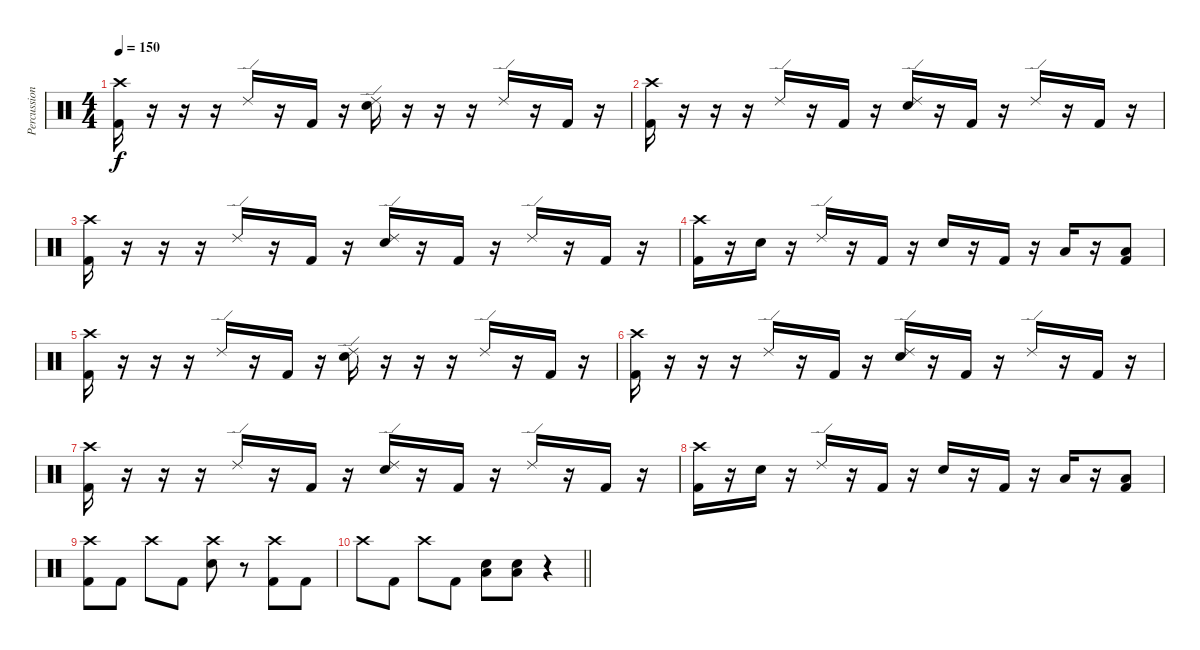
\track ("Percussion" "Percussion") {instrument percussion}
\staff {score}
\articulation defaults
\ts (4 4)
\tempo 150
\clef neutral
\ks c
("Crash high (hit)" "Kick (hit) 2").16{dy f} r.16 r.16 r.16 "Ride (edge) 2".16 r.16 "Kick (hit) 2".16 r.16 ("Ride (edge) 2" "Electric Snare (hit)").16 r.16 r.16 r.16 "Ride (edge) 2".16 r.16 "Kick (hit) 2".16 r.16 |
("Crash high (hit)" "Kick (hit) 2").16 r.16 r.16 r.16 "Ride (edge) 2".16 r.16 "Kick (hit) 2".16 r.16 ("Ride (edge) 2" "Electric Snare (hit)").16 r.16 "Kick (hit) 2".16 r.16 "Ride (edge) 2".16 r.16 "Kick (hit) 2".16 r.16 |
("Crash high (hit)" "Kick (hit) 2").16 r.16 r.16 r.16 "Ride (edge) 2".16 r.16 "Kick (hit) 2".16 r.16 ("Ride (edge) 2" "Electric Snare (hit)").16 r.16 "Kick (hit) 2".16 r.16 "Ride (edge) 2".16 r.16 "Kick (hit) 2".16 r.16 |
("Crash high (hit)" "Kick (hit) 2").16 r.16 "Electric Snare (hit)".16 r.16 "Ride (edge) 2".16 r.16 "Kick (hit) 2".16 r.16 "Electric Snare (hit)".16 r.16 "Kick (hit) 2".16 r.16 "Low Tom (hit)".16 r.16 ("Low Tom (hit)" "Kick (hit) 2").8 |
("Crash high (hit)" "Kick (hit) 2").16 r.16 r.16 r.16 "Ride (edge) 2".16 r.16 "Kick (hit) 2".16 r.16 ("Ride (edge) 2" "Electric Snare (hit)").16 r.16 r.16 r.16 "Ride (edge) 2".16 r.16 "Kick (hit) 2".16 r.16 |
("Crash high (hit)" "Kick (hit) 2").16 r.16 r.16 r.16 "Ride (edge) 2".16 r.16 "Kick (hit) 2".16 r.16 ("Ride (edge) 2" "Electric Snare (hit)").16 r.16 "Kick (hit) 2".16 r.16 "Ride (edge) 2".16 r.16 "Kick (hit) 2".16 r.16 |
("Crash high (hit)" "Kick (hit) 2").16 r.16 r.16 r.16 "Ride (edge) 2".16 r.16 "Kick (hit) 2".16 r.16 ("Ride (edge) 2" "Electric Snare (hit)").16 r.16 "Kick (hit) 2".16 r.16 "Ride (edge) 2".16 r.16 "Kick (hit) 2".16 r.16 |
("Crash high (hit)" "Kick (hit) 2").16 r.16 "Electric Snare (hit)".16 r.16 "Ride (edge) 2".16 r.16 "Kick (hit) 2".16 r.16 "Electric Snare (hit)".16 r.16 "Kick (hit) 2".16 r.16 "Low Tom (hit)".16 r.16 ("Low Tom (hit)" "Kick (hit) 2").8 |
("Crash high (hit)" "Kick (hit) 2").8 "Kick (hit) 2".8 "Crash high (hit)".8 "Kick (hit) 2".8 ("Crash high (hit)" "Electric Snare (hit)").8 r.8 ("Crash high (hit)" "Kick (hit) 2").8 "Kick (hit) 2".8 |
\barLineRight lightlight "Crash high (hit)".8 "Kick (hit) 2".8 "Crash high (hit)".8 "Kick (hit) 2".8
("Electric Snare (hit)" "Low Tom (hit)").8 ("Electric Snare (hit)" "Low Tom (hit)").8 r.4
